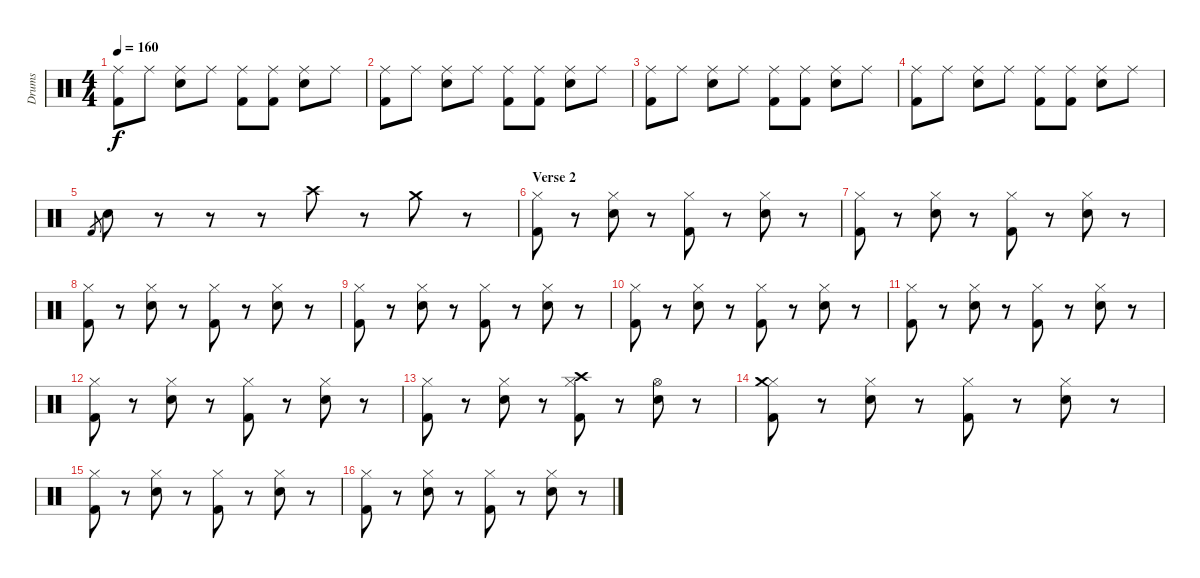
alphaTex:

\track ("Drums" "Drums") {instrument percussion}
\staff {score}
\articulation defaults
\ts (4 4)
\tempo 160
\clef neutral
\ks c
("Ride (middle)" "Kick (hit) 2").8{dy f} "Ride (middle)".8 ("Ride (middle)" "Electric Snare (hit)").8 "Ride (middle)".8 ("Ride (middle)" "Kick (hit) 2").8 ("Ride (middle)" "Kick (hit) 2").8 ("Ride (middle)" "Electric Snare (hit)").8 "Ride (middle)".8 |
("Ride (middle)" "Kick (hit) 2").8 "Ride (middle)".8 ("Ride (middle)" "Electric Snare (hit)").8 "Ride (middle)".8 ("Ride (middle)" "Kick (hit) 2").8 ("Ride (middle)" "Kick (hit) 2").8 ("Ride (middle)" "Electric Snare (hit)").8 "Ride (middle)".8 |
("Ride (middle)" "Kick (hit) 2").8 "Ride (middle)".8 ("Ride (middle)" "Electric Snare (hit)").8 "Ride (middle)".8 ("Ride (middle)" "Kick (hit) 2").8 ("Ride (middle)" "Kick (hit) 2").8 ("Ride (middle)" "Electric Snare (hit)").8 "Ride (middle)".8 |
("Ride (middle)" "Kick (hit) 2").8 "Ride (middle)".8 ("Ride (middle)" "Electric Snare (hit)").8 "Ride (middle)".8 ("Ride (middle)" "Kick (hit) 2").8 ("Ride (middle)" "Kick (hit) 2").8 ("Ride (middle)" "Electric Snare (hit)").8 "Ride (middle)".8 |
"Kick (hit) 2".8{gr} "Electric Snare (hit)".8 r.8 r.8 r.8 "Crash high (hit)".8 r.8 "Crash medium (hit)".8 r.8 |
\section ("" "Verse 2")
("Hi-Hat (closed)" "Kick (hit) 2").8 r.8 ("Hi-Hat (closed)" "Electric Snare (hit)").8 r.8 ("Hi-Hat (closed)" "Kick (hit) 2").8 r.8 ("Hi-Hat (closed)" "Electric Snare (hit)").8 r.8 |
("Hi-Hat (closed)" "Kick (hit) 2").8 r.8 ("Hi-Hat (closed)" "Electric Snare (hit)").8 r.8 ("Hi-Hat (closed)" "Kick (hit) 2").8 r.8 ("Hi-Hat (closed)" "Electric Snare (hit)").8 r.8 |
("Hi-Hat (closed)" "Kick (hit) 2").8 r.8 ("Hi-Hat (closed)" "Electric Snare (hit)").8 r.8 ("Hi-Hat (closed)" "Kick (hit) 2").8 r.8 ("Hi-Hat (closed)" "Electric Snare (hit)").8 r.8 |
("Hi-Hat (closed)" "Kick (hit) 2").8 r.8 ("Hi-Hat (closed)" "Electric Snare (hit)").8 r.8 ("Hi-Hat (closed)" "Kick (hit) 2").8 r.8 ("Hi-Hat (closed)" "Electric Snare (hit)").8 r.8 |
("Hi-Hat (closed)" "Kick (hit) 2").8 r.8 ("Hi-Hat (closed)" "Electric Snare (hit)").8 r.8 ("Hi-Hat (closed)" "Kick (hit) 2").8 r.8 ("Hi-Hat (closed)" "Electric Snare (hit)").8 r.8 |
("Hi-Hat (closed)" "Kick (hit) 2").8 r.8 ("Hi-Hat (closed)" "Electric Snare (hit)").8 r.8 ("Hi-Hat (closed)" "Kick (hit) 2").8 r.8 ("Hi-Hat (closed)" "Electric Snare (hit)").8 r.8 |
("Hi-Hat (closed)" "Kick (hit) 2").8 r.8 ("Hi-Hat (closed)" "Electric Snare (hit)").8 r.8 ("Hi-Hat (closed)" "Kick (hit) 2").8 r.8 ("Hi-Hat (closed)" "Electric Snare (hit)").8 r.8 |
("Hi-Hat (closed)" "Kick (hit) 2").8 r.8 ("Hi-Hat (closed)" "Electric Snare (hit)").8 r.8 ("Hi-Hat (closed)" "Kick (hit) 2" "Crash high (hit)").8 r.8 ("Hi-Hat (open)" "Electric Snare (hit)").8 r.8 |
("Hi-Hat (closed)" "Kick (hit) 2" "Crash medium (hit)").8 r.8 ("Hi-Hat (closed)" "Electric Snare (hit)").8 r.8 ("Hi-Hat (closed)" "Kick (hit) 2").8 r.8 ("Hi-Hat (closed)" "Electric Snare (hit)").8 r.8 |
("Hi-Hat (closed)" "Kick (hit) 2").8 r.8 ("Hi-Hat (closed)" "Electric Snare (hit)").8 r.8 ("Hi-Hat (closed)" "Kick (hit) 2").8 r.8 ("Hi-Hat (closed)" "Electric Snare (hit)").8 r.8 |
("Hi-Hat (closed)" "Kick (hit) 2").8 r.8 ("Hi-Hat (closed)" "Electric Snare (hit)").8 r.8 ("Hi-Hat (closed)" "Kick (hit) 2").8 r.8 ("Hi-Hat (closed)" "Electric Snare (hit)").8 r.8
